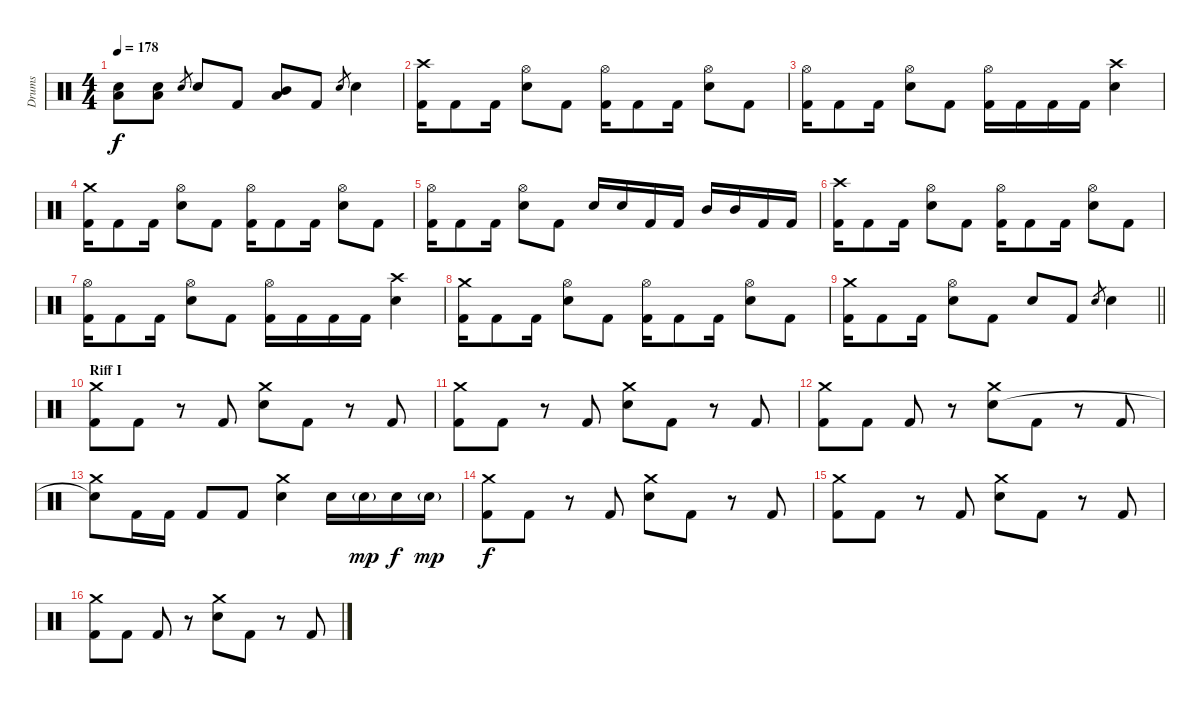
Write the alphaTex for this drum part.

\track ("Drums" "Drums") {instrument percussion}
\staff {score}
\articulation defaults
\ts (4 4)
\tempo 178
\clef neutral
\ks c
("Low Floor Tom (hit)" "Snare (hit) 2").8{dy f} ("Low Floor Tom (hit)" "Snare (hit) 2").8 "Snare (hit) 2".8{gr} "Snare (hit) 2".8 "Kick (hit) 2".8 ("Mid Tom (hit)" "Low Tom (hit)").8 "Kick (hit) 2".8 "Snare (hit) 2".8{gr} "Snare (hit) 2".4 |
("Crash high (hit)" "Kick (hit) 2").16 "Kick (hit) 2".8 "Kick (hit) 2".16 ("Hi-Hat (open)" "Snare (hit) 2").8 "Kick (hit) 2".8 ("Hi-Hat (open)" "Kick (hit) 2").16 "Kick (hit) 2".8 "Kick (hit) 2".16 ("Hi-Hat (open)" "Snare (hit) 2").8 "Kick (hit) 2".8 |
("Hi-Hat (open)" "Kick (hit) 2").16 "Kick (hit) 2".8 "Kick (hit) 2".16 ("Hi-Hat (open)" "Snare (hit) 2").8 "Kick (hit) 2".8 ("Hi-Hat (open)" "Kick (hit) 2").16 "Kick (hit) 2".16 "Kick (hit) 2".16 "Kick (hit) 2".16 ("Crash high (hit)" "Snare (hit) 2").4 |
("Crash medium (hit)" "Kick (hit) 2").16 "Kick (hit) 2".8 "Kick (hit) 2".16 ("Hi-Hat (open)" "Snare (hit) 2").8 "Kick (hit) 2".8 ("Hi-Hat (open)" "Kick (hit) 2").16 "Kick (hit) 2".8 "Kick (hit) 2".16 ("Hi-Hat (open)" "Snare (hit) 2").8 "Kick (hit) 2".8 |
("Hi-Hat (open)" "Kick (hit) 2").16 "Kick (hit) 2".8 "Kick (hit) 2".16 ("Hi-Hat (open)" "Snare (hit) 2").8 "Kick (hit) 2".8 "Snare (hit) 2".16 "Snare (hit) 2".16 "Kick (hit) 2".16 "Kick (hit) 2".16 "Mid Tom (hit)".16 "Mid Tom (hit)".16 "Kick (hit) 2".16 "Kick (hit) 2".16 |
("Crash high (hit)" "Kick (hit) 2").16 "Kick (hit) 2".8 "Kick (hit) 2".16 ("Hi-Hat (open)" "Snare (hit) 2").8 "Kick (hit) 2".8 ("Hi-Hat (open)" "Kick (hit) 2").16 "Kick (hit) 2".8 "Kick (hit) 2".16 ("Hi-Hat (open)" "Snare (hit) 2").8 "Kick (hit) 2".8 |
("Hi-Hat (open)" "Kick (hit) 2").16 "Kick (hit) 2".8 "Kick (hit) 2".16 ("Hi-Hat (open)" "Snare (hit) 2").8 "Kick (hit) 2".8 ("Hi-Hat (open)" "Kick (hit) 2").16 "Kick (hit) 2".16 "Kick (hit) 2".16 "Kick (hit) 2".16 ("Crash high (hit)" "Snare (hit) 2").4 |
("Crash medium (hit)" "Kick (hit) 2").16 "Kick (hit) 2".8 "Kick (hit) 2".16 ("Hi-Hat (open)" "Snare (hit) 2").8 "Kick (hit) 2".8 ("Hi-Hat (open)" "Kick (hit) 2").16 "Kick (hit) 2".8 "Kick (hit) 2".16 ("Hi-Hat (open)" "Snare (hit) 2").8 "Kick (hit) 2".8 |
\barLineRight lightlight
("Crash medium (hit)" "Kick (hit) 2").16 "Kick (hit) 2".8 "Kick (hit) 2".16 ("Hi-Hat (open)" "Snare (hit) 2").8 "Kick (hit) 2".8 "Snare (hit) 2".8 "Kick (hit) 2".8 "Snare (hit) 2".8{gr} "Snare (hit) 2".4 |
\section ("" "Riff I")
("Crash medium (hit)" "Kick (hit) 2").8 "Kick (hit) 2".8 r.8 "Kick (hit) 2".8 ("Crash medium (hit)" "Snare (hit) 2").8 "Kick (hit) 2".8 r.8 "Kick (hit) 2".8 |
("Crash medium (hit)" "Kick (hit) 2").8 "Kick (hit) 2".8 r.8 "Kick (hit) 2".8 ("Crash medium (hit)" "Snare (hit) 2").8 "Kick (hit) 2".8 r.8 "Kick (hit) 2".8 |
("Crash medium (hit)" "Kick (hit) 2").8 "Kick (hit) 2".8 "Kick (hit) 2".8 r.8 ("Crash medium (hit)" "Snare (hit) 2").8 "Kick (hit) 2".8 r.8 "Kick (hit) 2".8 |
("Crash medium (hit)" "Snare (hit)"{t}).8 "Kick (hit) 2".16 "Kick (hit) 2".16 "Kick (hit) 2".8 "Kick (hit) 2".8 ("Crash medium (hit)" "Snare (hit) 2").4 "Snare (hit) 2".16 "Snare (hit) 2"{g}.16{dy mp} "Snare (hit) 2".16{dy f} "Snare (hit) 2"{g}.16{dy mp} |
("Crash medium (hit)" "Kick (hit) 2").8{dy f} "Kick (hit) 2".8 r.8 "Kick (hit) 2".8 ("Crash medium (hit)" "Snare (hit) 2").8 "Kick (hit) 2".8 r.8 "Kick (hit) 2".8 |
("Crash medium (hit)" "Kick (hit) 2").8 "Kick (hit) 2".8 r.8 "Kick (hit) 2".8 ("Crash medium (hit)" "Snare (hit) 2").8 "Kick (hit) 2".8 r.8 "Kick (hit) 2".8 |
("Crash medium (hit)" "Kick (hit) 2").8 "Kick (hit) 2".8 "Kick (hit) 2".8 r.8 ("Crash medium (hit)" "Snare (hit) 2").8 "Kick (hit) 2".8 r.8 "Kick (hit) 2".8
